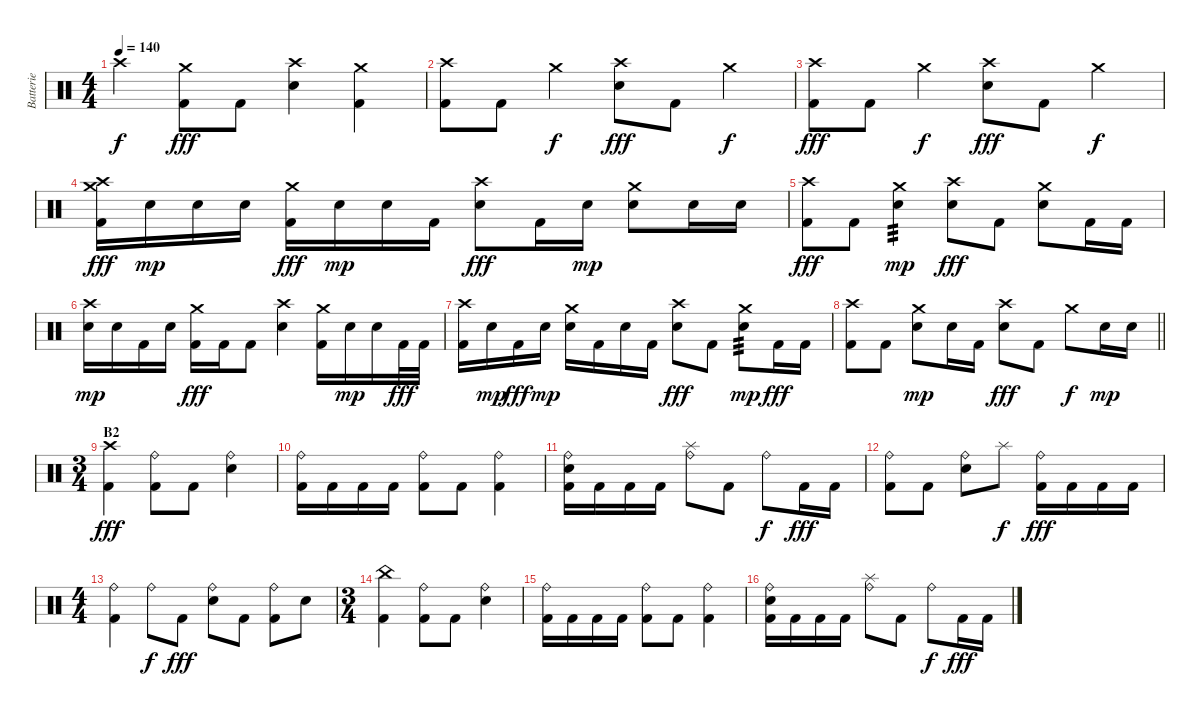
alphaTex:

\track ("Batterie" "Batterie") {instrument percussion}
\staff {score}
\articulation defaults
\ts (4 4)
\tempo 140
\clef neutral
\ks c "Crash high (hit)".4{dy f}
("Crash medium (hit)" "Kick (hit) 2").8{dy fff} "Kick (hit) 2".8 ("Crash high (hit)" "Electric Snare (hit)").4 ("Crash medium (hit)" "Kick (hit) 2").4 |
("Crash high (hit)" "Kick (hit) 2").8 "Kick (hit) 2".8 "Crash medium (hit)".4{dy f} ("Crash high (hit)" "Electric Snare (hit)").8{dy fff} "Kick (hit) 2".8 "Crash medium (hit)".4{dy f} |
("Crash high (hit)" "Kick (hit) 2").8{dy fff} "Kick (hit) 2".8 "Crash medium (hit)".4{dy f} ("Crash high (hit)" "Electric Snare (hit)").8{dy fff} "Kick (hit) 2".8 "Crash medium (hit)".4{dy f} |
("Crash high (hit)" "Crash medium (hit)" "Kick (hit) 2").16{dy fff} "Electric Snare (hit)".16{dy mp} "Electric Snare (hit)".16 "Electric Snare (hit)".16 ("Crash medium (hit)" "Kick (hit) 2").16{dy fff} "Electric Snare (hit)".16{dy mp} "Electric Snare (hit)".16 "Kick (hit) 2".16 ("Crash high (hit)" "Electric Snare (hit)").8{dy fff} "Kick (hit) 2".16 "Electric Snare (hit)".16{dy mp} ("Crash medium (hit)" "Electric Snare (hit)").8 "Electric Snare (hit)".16 "Electric Snare (hit)".16 |
("Crash high (hit)" "Kick (hit) 2").8{dy fff} "Kick (hit) 2".8 ("Crash medium (hit)" "Electric Snare (hit)").4{tp 3 dy mp} ("Crash high (hit)" "Electric Snare (hit)").8{dy fff} "Kick (hit) 2".8 ("Crash medium (hit)" "Electric Snare (hit)").8 "Kick (hit) 2".16 "Kick (hit) 2".16 |
("Crash high (hit)" "Electric Snare (hit)").16{dy mp} "Electric Snare (hit)".16 "Kick (hit) 2".16 "Electric Snare (hit)".16 ("Crash medium (hit)" "Kick (hit) 2").16{dy fff} "Kick (hit) 2".16 "Kick (hit) 2".8 ("Crash high (hit)" "Electric Snare (hit)").4 ("Crash medium (hit)" "Kick (hit) 2").16 "Electric Snare (hit)".16{dy mp} "Electric Snare (hit)".16 "Kick (hit) 2".32{dy fff} "Kick (hit) 2".32 |
("Crash high (hit)" "Kick (hit) 2").16 "Electric Snare (hit)".16{dy mp} "Kick (hit) 2".16{dy fff} "Electric Snare (hit)".16{dy mp} ("Crash medium (hit)" "Electric Snare (hit)").16 "Kick (hit) 2".16 "Electric Snare (hit)".16 "Kick (hit) 2".16 ("Crash high (hit)" "Electric Snare (hit)").8{dy fff} "Kick (hit) 2".8 ("Crash medium (hit)" "Electric Snare (hit)").8{tp 3 dy mp} "Kick (hit) 2".16{dy fff} "Kick (hit) 2".16 |
\barLineRight lightlight
("Crash high (hit)" "Kick (hit) 2").8 "Kick (hit) 2".8 ("Crash medium (hit)" "Electric Snare (hit)").8{dy mp} "Electric Snare (hit)".16 "Kick (hit) 2".16 ("Crash high (hit)" "Electric Snare (hit)").8{dy fff} "Kick (hit) 2".8 "Crash medium (hit)".8{dy f} "Electric Snare (hit)".16{dy mp} "Electric Snare (hit)".16 |
\ts (3 4)
\section ("" "B2")
("Crash high (hit)" "Kick (hit) 2").4{dy fff} ("Ride (bell)" "Kick (hit) 2").8 "Kick (hit) 2".8 ("Ride (bell)" "Electric Snare (hit)").4 |
("Ride (bell)" "Kick (hit) 2").16 "Kick (hit) 2".16 "Kick (hit) 2".16 "Kick (hit) 2".16 ("Ride (bell)" "Kick (hit) 2").8 "Kick (hit) 2".8 ("Ride (bell)" "Kick (hit) 2").4 |
("Ride (bell)" "Electric Snare (hit)" "Kick (hit) 2").16 "Kick (hit) 2".16 "Kick (hit) 2".16 "Kick (hit) 2".16 ("Ride (bell)" "Splash (hit)").8 "Kick (hit) 2".8 "Ride (bell)".8{dy f} "Kick (hit) 2".16{dy fff} "Kick (hit) 2".16 |
("Ride (bell)" "Kick (hit) 2").8 "Kick (hit) 2".8 ("Ride (bell)" "Electric Snare (hit)").8 "Splash (hit)".8{dy f} ("Ride (bell)" "Kick (hit) 2").16{dy fff} "Kick (hit) 2".16 "Kick (hit) 2".16 "Kick (hit) 2".16 |
\ts (4 4)
("Ride (bell)" "Kick (hit) 2").4 "Ride (bell)".8{dy f} "Kick (hit) 2".8{dy fff} ("Ride (bell)" "Electric Snare (hit)").8 "Kick (hit) 2".8 ("Ride (bell)" "Kick (hit) 2").8 "Electric Snare (hit)".8 |
\ts (3 4)
("China (hit)" "Kick (hit) 2").4 ("Ride (bell)" "Kick (hit) 2").8 "Kick (hit) 2".8 ("Ride (bell)" "Electric Snare (hit)").4 |
("Ride (bell)" "Kick (hit) 2").16 "Kick (hit) 2".16 "Kick (hit) 2".16 "Kick (hit) 2".16 ("Ride (bell)" "Kick (hit) 2").8 "Kick (hit) 2".8 ("Ride (bell)" "Kick (hit) 2").4 |
("Ride (bell)" "Electric Snare (hit)" "Kick (hit) 2").16 "Kick (hit) 2".16 "Kick (hit) 2".16 "Kick (hit) 2".16 ("Ride (bell)" "Splash (hit)").8 "Kick (hit) 2".8 "Ride (bell)".8{dy f} "Kick (hit) 2".16{dy fff} "Kick (hit) 2".16
